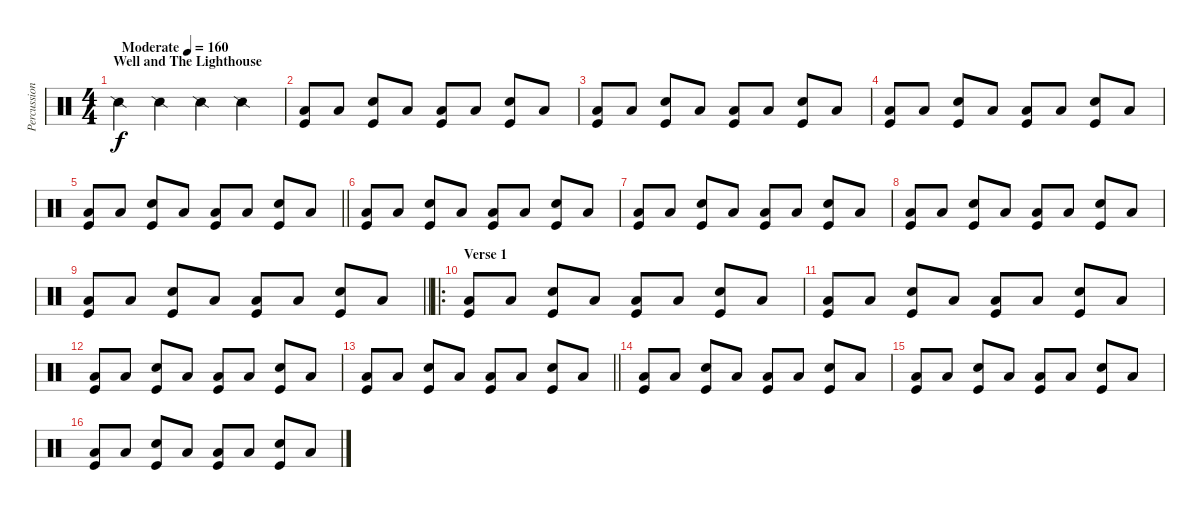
\track ("Percussion" "Percussion") {instrument percussion}
\staff {score}
\articulation defaults
\ts (4 4)
\section ("" "Well and The Lighthouse")
\tempo (160 "Moderate")
\clef neutral
\ks c "Snare (side stick) 2".4{dy f} "Snare (side stick) 2".4 "Snare (side stick) 2".4 "Snare (side stick) 2".4
|
("Low Floor Tom (hit)" "Kick (hit)").8 "Low Floor Tom (hit)".8 ("Snare (hit) 2" "Kick (hit)").8 "Low Floor Tom (hit)".8 ("Low Floor Tom (hit)" "Kick (hit)").8 "Low Floor Tom (hit)".8 ("Snare (hit) 2" "Kick (hit)").8 "Low Floor Tom (hit)".8 |
("Low Floor Tom (hit)" "Kick (hit)").8 "Low Floor Tom (hit)".8 ("Snare (hit) 2" "Kick (hit)").8 "Low Floor Tom (hit)".8 ("Low Floor Tom (hit)" "Kick (hit)").8 "Low Floor Tom (hit)".8 ("Snare (hit) 2" "Kick (hit)").8 "Low Floor Tom (hit)".8 |
("Low Floor Tom (hit)" "Kick (hit)").8 "Low Floor Tom (hit)".8 ("Snare (hit) 2" "Kick (hit)").8 "Low Floor Tom (hit)".8 ("Low Floor Tom (hit)" "Kick (hit)").8 "Low Floor Tom (hit)".8 ("Snare (hit) 2" "Kick (hit)").8 "Low Floor Tom (hit)".8 |
\barLineRight lightlight
("Low Floor Tom (hit)" "Kick (hit)").8 "Low Floor Tom (hit)".8 ("Snare (hit) 2" "Kick (hit)").8 "Low Floor Tom (hit)".8 ("Low Floor Tom (hit)" "Kick (hit)").8 "Low Floor Tom (hit)".8 ("Snare (hit) 2" "Kick (hit)").8 "Low Floor Tom (hit)".8 |
("Low Floor Tom (hit)" "Kick (hit)").8 "Low Floor Tom (hit)".8 ("Snare (hit) 2" "Kick (hit)").8 "Low Floor Tom (hit)".8 ("Low Floor Tom (hit)" "Kick (hit)").8 "Low Floor Tom (hit)".8 ("Snare (hit) 2" "Kick (hit)").8 "Low Floor Tom (hit)".8 |
("Low Floor Tom (hit)" "Kick (hit)").8 "Low Floor Tom (hit)".8 ("Snare (hit) 2" "Kick (hit)").8 "Low Floor Tom (hit)".8 ("Low Floor Tom (hit)" "Kick (hit)").8 "Low Floor Tom (hit)".8 ("Snare (hit) 2" "Kick (hit)").8 "Low Floor Tom (hit)".8 |
("Low Floor Tom (hit)" "Kick (hit)").8 "Low Floor Tom (hit)".8 ("Snare (hit) 2" "Kick (hit)").8 "Low Floor Tom (hit)".8 ("Low Floor Tom (hit)" "Kick (hit)").8 "Low Floor Tom (hit)".8 ("Snare (hit) 2" "Kick (hit)").8 "Low Floor Tom (hit)".8 |
\barLineRight lightlight
("Low Floor Tom (hit)" "Kick (hit)").8 "Low Floor Tom (hit)".8 ("Snare (hit) 2" "Kick (hit)").8 "Low Floor Tom (hit)".8 ("Low Floor Tom (hit)" "Kick (hit)").8 "Low Floor Tom (hit)".8 ("Snare (hit) 2" "Kick (hit)").8 "Low Floor Tom (hit)".8 |
\ro
\section ("" "Verse 1")
("Low Floor Tom (hit)" "Kick (hit)").8 "Low Floor Tom (hit)".8 ("Snare (hit) 2" "Kick (hit)").8 "Low Floor Tom (hit)".8 ("Low Floor Tom (hit)" "Kick (hit)").8 "Low Floor Tom (hit)".8 ("Snare (hit) 2" "Kick (hit)").8 "Low Floor Tom (hit)".8 |
("Low Floor Tom (hit)" "Kick (hit)").8 "Low Floor Tom (hit)".8 ("Snare (hit) 2" "Kick (hit)").8 "Low Floor Tom (hit)".8 ("Low Floor Tom (hit)" "Kick (hit)").8 "Low Floor Tom (hit)".8 ("Snare (hit) 2" "Kick (hit)").8 "Low Floor Tom (hit)".8 |
("Low Floor Tom (hit)" "Kick (hit)").8 "Low Floor Tom (hit)".8 ("Snare (hit) 2" "Kick (hit)").8 "Low Floor Tom (hit)".8 ("Low Floor Tom (hit)" "Kick (hit)").8 "Low Floor Tom (hit)".8 ("Snare (hit) 2" "Kick (hit)").8 "Low Floor Tom (hit)".8 |
\barLineRight lightlight
("Low Floor Tom (hit)" "Kick (hit)").8 "Low Floor Tom (hit)".8 ("Snare (hit) 2" "Kick (hit)").8 "Low Floor Tom (hit)".8 ("Low Floor Tom (hit)" "Kick (hit)").8 "Low Floor Tom (hit)".8 ("Snare (hit) 2" "Kick (hit)").8 "Low Floor Tom (hit)".8 |
("Low Floor Tom (hit)" "Kick (hit)").8 "Low Floor Tom (hit)".8 ("Snare (hit) 2" "Kick (hit)").8 "Low Floor Tom (hit)".8 ("Low Floor Tom (hit)" "Kick (hit)").8 "Low Floor Tom (hit)".8 ("Snare (hit) 2" "Kick (hit)").8 "Low Floor Tom (hit)".8 |
("Low Floor Tom (hit)" "Kick (hit)").8 "Low Floor Tom (hit)".8 ("Snare (hit) 2" "Kick (hit)").8 "Low Floor Tom (hit)".8 ("Low Floor Tom (hit)" "Kick (hit)").8 "Low Floor Tom (hit)".8 ("Snare (hit) 2" "Kick (hit)").8 "Low Floor Tom (hit)".8 |
("Low Floor Tom (hit)" "Kick (hit)").8 "Low Floor Tom (hit)".8 ("Snare (hit) 2" "Kick (hit)").8 "Low Floor Tom (hit)".8 ("Low Floor Tom (hit)" "Kick (hit)").8 "Low Floor Tom (hit)".8 ("Snare (hit) 2" "Kick (hit)").8 "Low Floor Tom (hit)".8
